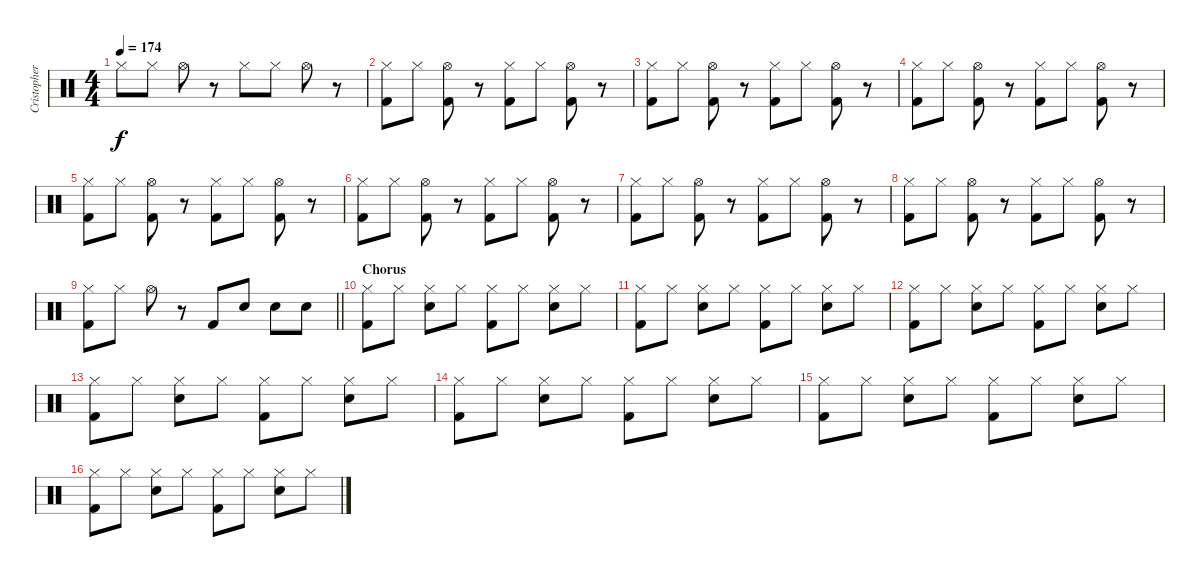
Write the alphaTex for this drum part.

\track ("Cristopher S. (Drums)" "Cristopher") {instrument percussion}
\staff {score}
\articulation defaults
\ts (4 4)
\tempo 174
\clef neutral
\ks c "Hi-Hat (closed)".8{dy f} "Hi-Hat (closed)".8 "Hi-Hat (open)".8
r.8 "Hi-Hat (closed)".8 "Hi-Hat (closed)".8 "Hi-Hat (open)".8 r.8 |
("Hi-Hat (closed)" "Kick (hit) 2").8 "Hi-Hat (closed)".8 ("Hi-Hat (open)" "Kick (hit) 2").8 r.8 ("Hi-Hat (closed)" "Kick (hit) 2").8 "Hi-Hat (closed)".8 ("Hi-Hat (open)" "Kick (hit) 2").8 r.8 |
("Hi-Hat (closed)" "Kick (hit) 2").8 "Hi-Hat (closed)".8 ("Hi-Hat (open)" "Kick (hit) 2").8 r.8 ("Hi-Hat (closed)" "Kick (hit) 2").8 "Hi-Hat (closed)".8 ("Hi-Hat (open)" "Kick (hit) 2").8 r.8 |
("Hi-Hat (closed)" "Kick (hit) 2").8 "Hi-Hat (closed)".8 ("Hi-Hat (open)" "Kick (hit) 2").8 r.8 ("Hi-Hat (closed)" "Kick (hit) 2").8 "Hi-Hat (closed)".8 ("Hi-Hat (open)" "Kick (hit) 2").8 r.8 |
("Hi-Hat (closed)" "Kick (hit) 2").8 "Hi-Hat (closed)".8 ("Hi-Hat (open)" "Kick (hit) 2").8 r.8 ("Hi-Hat (closed)" "Kick (hit) 2").8 "Hi-Hat (closed)".8 ("Hi-Hat (open)" "Kick (hit) 2").8 r.8 |
("Hi-Hat (closed)" "Kick (hit) 2").8 "Hi-Hat (closed)".8 ("Hi-Hat (open)" "Kick (hit) 2").8 r.8 ("Hi-Hat (closed)" "Kick (hit) 2").8 "Hi-Hat (closed)".8 ("Hi-Hat (open)" "Kick (hit) 2").8 r.8 |
("Hi-Hat (closed)" "Kick (hit) 2").8 "Hi-Hat (closed)".8 ("Hi-Hat (open)" "Kick (hit) 2").8 r.8 ("Hi-Hat (closed)" "Kick (hit) 2").8 "Hi-Hat (closed)".8 ("Hi-Hat (open)" "Kick (hit) 2").8 r.8 |
("Hi-Hat (closed)" "Kick (hit) 2").8 "Hi-Hat (closed)".8 ("Hi-Hat (open)" "Kick (hit) 2").8 r.8 ("Hi-Hat (closed)" "Kick (hit) 2").8 "Hi-Hat (closed)".8 ("Hi-Hat (open)" "Kick (hit) 2").8 r.8 |
\barLineRight lightlight
("Hi-Hat (closed)" "Kick (hit) 2").8 "Hi-Hat (closed)".8 "Hi-Hat (open)".8 r.8 "Kick (hit) 2".8 "Electric Snare (hit)".8 "Electric Snare (hit)".8 "Electric Snare (hit)".8 |
\section ("" "Chorus")
("Kick (hit) 2" "Hi-Hat (closed)").8 "Hi-Hat (closed)".8 ("Electric Snare (hit)" "Hi-Hat (closed)").8 "Hi-Hat (closed)".8 ("Kick (hit) 2" "Hi-Hat (closed)").8 "Hi-Hat (closed)".8 ("Electric Snare (hit)" "Hi-Hat (closed)").8 "Hi-Hat (closed)".8 |
("Kick (hit) 2" "Hi-Hat (closed)").8 "Hi-Hat (closed)".8 ("Electric Snare (hit)" "Hi-Hat (closed)").8 "Hi-Hat (closed)".8 ("Kick (hit) 2" "Hi-Hat (closed)").8 "Hi-Hat (closed)".8 ("Electric Snare (hit)" "Hi-Hat (closed)").8 "Hi-Hat (closed)".8 |
("Kick (hit) 2" "Hi-Hat (closed)").8 "Hi-Hat (closed)".8 ("Electric Snare (hit)" "Hi-Hat (closed)").8 "Hi-Hat (closed)".8 ("Kick (hit) 2" "Hi-Hat (closed)").8 "Hi-Hat (closed)".8 ("Electric Snare (hit)" "Hi-Hat (closed)").8 "Hi-Hat (closed)".8 |
("Kick (hit) 2" "Hi-Hat (closed)").8 "Hi-Hat (closed)".8 ("Electric Snare (hit)" "Hi-Hat (closed)").8 "Hi-Hat (closed)".8 ("Kick (hit) 2" "Hi-Hat (closed)").8 "Hi-Hat (closed)".8 ("Electric Snare (hit)" "Hi-Hat (closed)").8 "Hi-Hat (closed)".8 |
("Kick (hit) 2" "Hi-Hat (closed)").8 "Hi-Hat (closed)".8 ("Electric Snare (hit)" "Hi-Hat (closed)").8 "Hi-Hat (closed)".8 ("Kick (hit) 2" "Hi-Hat (closed)").8 "Hi-Hat (closed)".8 ("Electric Snare (hit)" "Hi-Hat (closed)").8 "Hi-Hat (closed)".8 |
("Kick (hit) 2" "Hi-Hat (closed)").8 "Hi-Hat (closed)".8 ("Electric Snare (hit)" "Hi-Hat (closed)").8 "Hi-Hat (closed)".8 ("Kick (hit) 2" "Hi-Hat (closed)").8 "Hi-Hat (closed)".8 ("Electric Snare (hit)" "Hi-Hat (closed)").8 "Hi-Hat (closed)".8 |
("Kick (hit) 2" "Hi-Hat (closed)").8 "Hi-Hat (closed)".8 ("Electric Snare (hit)" "Hi-Hat (closed)").8 "Hi-Hat (closed)".8 ("Kick (hit) 2" "Hi-Hat (closed)").8 "Hi-Hat (closed)".8 ("Electric Snare (hit)" "Hi-Hat (closed)").8 "Hi-Hat (closed)".8
